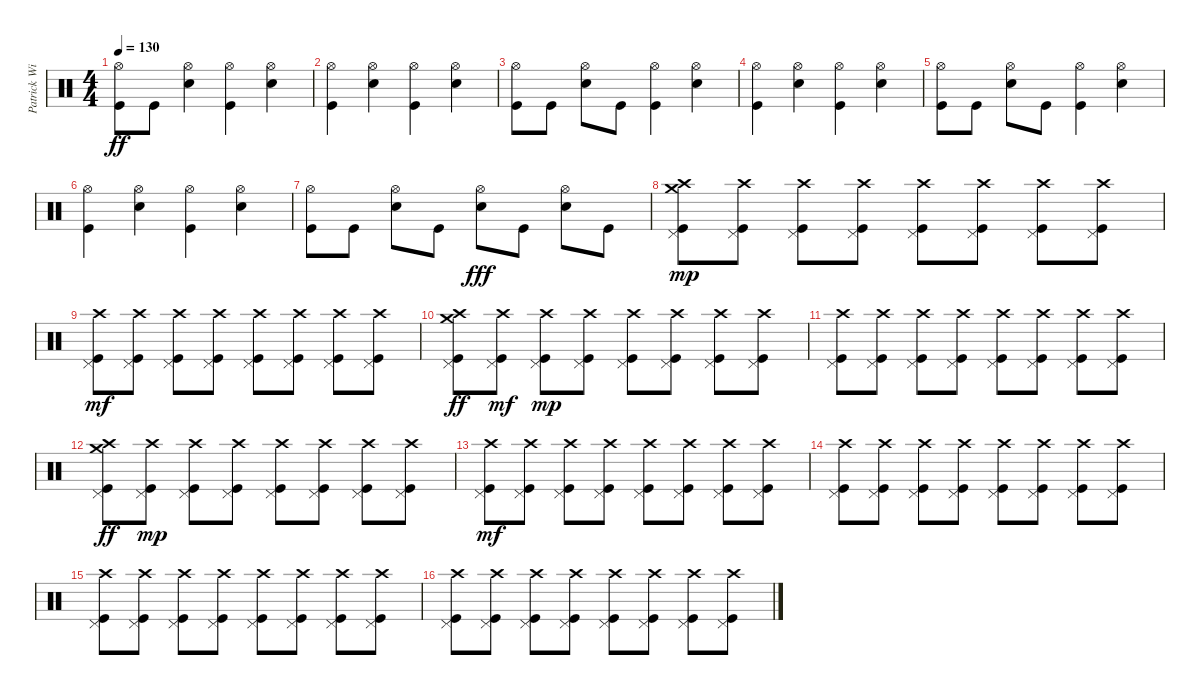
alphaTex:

\track ("Patrick Wilson" "Patrick Wi") {instrument percussion}
\staff {score}
\articulation defaults
\ts (4 4)
\tempo 130
\clef neutral
\ks c
("Hi-Hat (open)" "Kick (hit)").8{dy ff} "Kick (hit)".8 ("Hi-Hat (open)" "Electric Snare (hit)").4 ("Hi-Hat (open)" "Kick (hit)").4 ("Hi-Hat (open)" "Electric Snare (hit)").4 |
("Hi-Hat (open)" "Kick (hit)").4 ("Hi-Hat (open)" "Electric Snare (hit)").4 ("Hi-Hat (open)" "Kick (hit)").4 ("Hi-Hat (open)" "Electric Snare (hit)").4 |
("Hi-Hat (open)" "Kick (hit)").8 "Kick (hit)".8 ("Hi-Hat (open)" "Electric Snare (hit)").8 "Kick (hit)".8 ("Hi-Hat (open)" "Kick (hit)").4 ("Hi-Hat (open)" "Electric Snare (hit)").4 |
("Hi-Hat (open)" "Kick (hit)").4 ("Hi-Hat (open)" "Electric Snare (hit)").4 ("Hi-Hat (open)" "Kick (hit)").4 ("Hi-Hat (open)" "Electric Snare (hit)").4 |
("Hi-Hat (open)" "Kick (hit)").8 "Kick (hit)".8 ("Hi-Hat (open)" "Electric Snare (hit)").8 "Kick (hit)".8 ("Hi-Hat (open)" "Kick (hit)").4 ("Hi-Hat (open)" "Electric Snare (hit)").4 |
("Hi-Hat (open)" "Kick (hit)").4 ("Hi-Hat (open)" "Electric Snare (hit)").4 ("Hi-Hat (open)" "Kick (hit)").4 ("Hi-Hat (open)" "Electric Snare (hit)").4 |
("Hi-Hat (open)" "Kick (hit)").8 "Kick (hit)".8 ("Hi-Hat (open)" "Electric Snare (hit)").8 "Kick (hit)".8 ("Hi-Hat (open)" "Electric Snare (hit)").8{dy fff} "Kick (hit)".8 ("Hi-Hat (open)" "Electric Snare (hit)").8 "Kick (hit)".8 |
("Pedal Hi-Hat (hit)" "Crash high (hit)" "Crash medium (hit)" "Kick (hit)").8{dy mp} ("Pedal Hi-Hat (hit)" "Crash high (hit)" "Kick (hit)").8 ("Pedal Hi-Hat (hit)" "Crash high (hit)" "Kick (hit)").8 ("Pedal Hi-Hat (hit)" "Crash high (hit)" "Kick (hit)").8 ("Pedal Hi-Hat (hit)" "Crash high (hit)" "Kick (hit)").8 ("Pedal Hi-Hat (hit)" "Crash high (hit)" "Kick (hit)").8 ("Pedal Hi-Hat (hit)" "Crash high (hit)" "Kick (hit)").8 ("Pedal Hi-Hat (hit)" "Crash high (hit)" "Kick (hit)").8 |
("Pedal Hi-Hat (hit)" "Crash high (hit)" "Kick (hit)").8{dy mf} ("Pedal Hi-Hat (hit)" "Crash high (hit)" "Kick (hit)").8 ("Pedal Hi-Hat (hit)" "Crash high (hit)" "Kick (hit)").8 ("Pedal Hi-Hat (hit)" "Crash high (hit)" "Kick (hit)").8 ("Pedal Hi-Hat (hit)" "Crash high (hit)" "Kick (hit)").8 ("Pedal Hi-Hat (hit)" "Crash high (hit)" "Kick (hit)").8 ("Pedal Hi-Hat (hit)" "Crash high (hit)" "Kick (hit)").8 ("Pedal Hi-Hat (hit)" "Crash high (hit)" "Kick (hit)").8 |
("Pedal Hi-Hat (hit)" "Crash high (hit)" "Crash medium (hit)" "Kick (hit)").8{dy ff} ("Pedal Hi-Hat (hit)" "Crash high (hit)" "Kick (hit)").8{dy mf} ("Pedal Hi-Hat (hit)" "Crash high (hit)" "Kick (hit)").8{dy mp} ("Pedal Hi-Hat (hit)" "Crash high (hit)" "Kick (hit)").8 ("Pedal Hi-Hat (hit)" "Crash high (hit)" "Kick (hit)").8 ("Pedal Hi-Hat (hit)" "Crash high (hit)" "Kick (hit)").8 ("Pedal Hi-Hat (hit)" "Crash high (hit)" "Kick (hit)").8 ("Pedal Hi-Hat (hit)" "Crash high (hit)" "Kick (hit)").8 |
("Pedal Hi-Hat (hit)" "Crash high (hit)" "Kick (hit)").8 ("Pedal Hi-Hat (hit)" "Crash high (hit)" "Kick (hit)").8 ("Pedal Hi-Hat (hit)" "Crash high (hit)" "Kick (hit)").8 ("Pedal Hi-Hat (hit)" "Crash high (hit)" "Kick (hit)").8 ("Pedal Hi-Hat (hit)" "Crash high (hit)" "Kick (hit)").8 ("Pedal Hi-Hat (hit)" "Crash high (hit)" "Kick (hit)").8 ("Pedal Hi-Hat (hit)" "Crash high (hit)" "Kick (hit)").8 ("Pedal Hi-Hat (hit)" "Crash high (hit)" "Kick (hit)").8 |
("Pedal Hi-Hat (hit)" "Crash high (hit)" "Crash medium (hit)" "Kick (hit)").8{dy ff} ("Pedal Hi-Hat (hit)" "Crash high (hit)" "Kick (hit)").8{dy mp} ("Pedal Hi-Hat (hit)" "Crash high (hit)" "Kick (hit)").8 ("Pedal Hi-Hat (hit)" "Crash high (hit)" "Kick (hit)").8 ("Pedal Hi-Hat (hit)" "Crash high (hit)" "Kick (hit)").8 ("Pedal Hi-Hat (hit)" "Crash high (hit)" "Kick (hit)").8 ("Pedal Hi-Hat (hit)" "Crash high (hit)" "Kick (hit)").8 ("Pedal Hi-Hat (hit)" "Crash high (hit)" "Kick (hit)").8 |
("Pedal Hi-Hat (hit)" "Crash high (hit)" "Kick (hit)").8{dy mf} ("Pedal Hi-Hat (hit)" "Crash high (hit)" "Kick (hit)").8 ("Pedal Hi-Hat (hit)" "Crash high (hit)" "Kick (hit)").8 ("Pedal Hi-Hat (hit)" "Crash high (hit)" "Kick (hit)").8 ("Pedal Hi-Hat (hit)" "Crash high (hit)" "Kick (hit)").8 ("Pedal Hi-Hat (hit)" "Crash high (hit)" "Kick (hit)").8 ("Pedal Hi-Hat (hit)" "Crash high (hit)" "Kick (hit)").8 ("Pedal Hi-Hat (hit)" "Crash high (hit)" "Kick (hit)").8 |
("Pedal Hi-Hat (hit)" "Crash high (hit)" "Kick (hit)").8 ("Pedal Hi-Hat (hit)" "Crash high (hit)" "Kick (hit)").8 ("Pedal Hi-Hat (hit)" "Crash high (hit)" "Kick (hit)").8 ("Pedal Hi-Hat (hit)" "Crash high (hit)" "Kick (hit)").8 ("Pedal Hi-Hat (hit)" "Crash high (hit)" "Kick (hit)").8 ("Pedal Hi-Hat (hit)" "Crash high (hit)" "Kick (hit)").8 ("Pedal Hi-Hat (hit)" "Crash high (hit)" "Kick (hit)").8 ("Pedal Hi-Hat (hit)" "Crash high (hit)" "Kick (hit)").8 |
("Pedal Hi-Hat (hit)" "Crash high (hit)" "Kick (hit)").8 ("Pedal Hi-Hat (hit)" "Crash high (hit)" "Kick (hit)").8 ("Pedal Hi-Hat (hit)" "Crash high (hit)" "Kick (hit)").8 ("Pedal Hi-Hat (hit)" "Crash high (hit)" "Kick (hit)").8 ("Pedal Hi-Hat (hit)" "Crash high (hit)" "Kick (hit)").8 ("Pedal Hi-Hat (hit)" "Crash high (hit)" "Kick (hit)").8 ("Pedal Hi-Hat (hit)" "Crash high (hit)" "Kick (hit)").8 ("Pedal Hi-Hat (hit)" "Crash high (hit)" "Kick (hit)").8 |
("Pedal Hi-Hat (hit)" "Crash high (hit)" "Kick (hit)").8 ("Pedal Hi-Hat (hit)" "Crash high (hit)" "Kick (hit)").8 ("Pedal Hi-Hat (hit)" "Crash high (hit)" "Kick (hit)").8 ("Pedal Hi-Hat (hit)" "Crash high (hit)" "Kick (hit)").8 ("Pedal Hi-Hat (hit)" "Crash high (hit)" "Kick (hit)").8 ("Pedal Hi-Hat (hit)" "Crash high (hit)" "Kick (hit)").8 ("Pedal Hi-Hat (hit)" "Crash high (hit)" "Kick (hit)").8 ("Pedal Hi-Hat (hit)" "Crash high (hit)" "Kick (hit)").8
